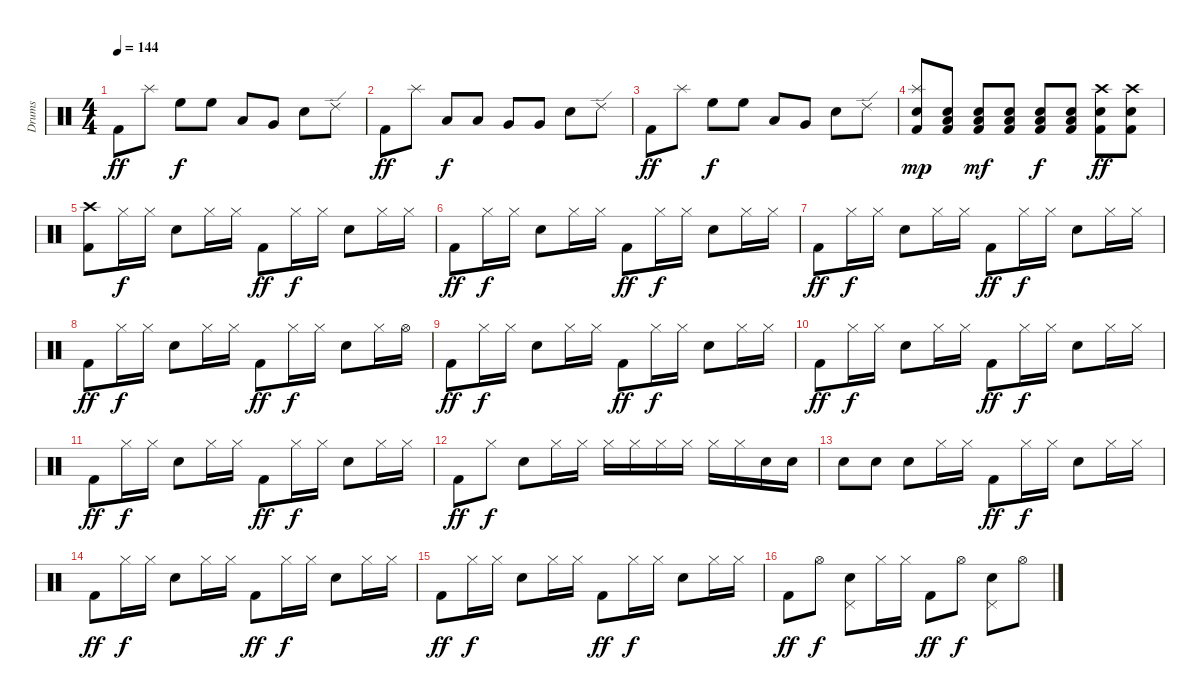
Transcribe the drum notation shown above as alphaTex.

\track ("Drums" "Drums") {instrument percussion}
\staff {score}
\articulation defaults
\ts (4 4)
\tempo 144
\clef neutral
\ks c "Kick (hit) 2".8{dy ff} "Splash (hit)".8 "High Floor Tom (hit)".8{dy f} "High Floor Tom (hit)".8 "Low Tom (hit)".8 "Very Low Tom (hit)".8 "Snare (hit) 2".8 "Ride (edge) 2".8
|
"Kick (hit) 2".8{dy ff} "Splash (hit)".8 "Low Tom (hit)".8{dy f} "Low Tom (hit)".8 "Very Low Tom (hit)".8 "Very Low Tom (hit)".8 "Snare (hit) 2".8 "Ride (edge) 2".8 |
"Kick (hit) 2".8{dy ff} "Splash (hit)".8 "High Floor Tom (hit)".8{dy f} "High Floor Tom (hit)".8 "Low Tom (hit)".8 "Very Low Tom (hit)".8 "Snare (hit) 2".8 "Ride (edge) 2".8 |
("Splash (hit)" "Snare (hit) 2" "Kick (hit) 2").8{dy mp} ("Snare (hit) 2" "Low Floor Tom (hit)" "Kick (hit) 2").8 ("Snare (hit) 2" "Low Floor Tom (hit)" "Kick (hit) 2").8{dy mf} ("Snare (hit) 2" "Low Floor Tom (hit)" "Kick (hit) 2").8 ("Snare (hit) 2" "Low Floor Tom (hit)" "Kick (hit) 2").8{dy f} ("Snare (hit) 2" "Low Floor Tom (hit)" "Kick (hit) 2").8 ("Crash high (hit)" "Snare (hit) 2" "Kick (hit) 2").8{dy ff} ("Crash high (hit)" "Snare (hit) 2" "Kick (hit) 2").8 |
("Crash high (hit)" "Kick (hit) 2").8 "Hi-Hat (closed)".16{dy f} "Hi-Hat (closed)".16 "Snare (hit) 2".8 "Hi-Hat (closed)".16 "Hi-Hat (closed)".16 "Kick (hit) 2".8{dy ff} "Hi-Hat (closed)".16{dy f} "Hi-Hat (closed)".16 "Snare (hit) 2".8 "Hi-Hat (closed)".16 "Hi-Hat (closed)".16 |
"Kick (hit) 2".8{dy ff} "Hi-Hat (closed)".16{dy f} "Hi-Hat (closed)".16 "Snare (hit) 2".8 "Hi-Hat (closed)".16 "Hi-Hat (closed)".16 "Kick (hit) 2".8{dy ff} "Hi-Hat (closed)".16{dy f} "Hi-Hat (closed)".16 "Snare (hit) 2".8 "Hi-Hat (closed)".16 "Hi-Hat (closed)".16 |
"Kick (hit) 2".8{dy ff} "Hi-Hat (closed)".16{dy f} "Hi-Hat (closed)".16 "Snare (hit) 2".8 "Hi-Hat (closed)".16 "Hi-Hat (closed)".16 "Kick (hit) 2".8{dy ff} "Hi-Hat (closed)".16{dy f} "Hi-Hat (closed)".16 "Snare (hit) 2".8 "Hi-Hat (closed)".16 "Hi-Hat (closed)".16 |
"Kick (hit) 2".8{dy ff} "Hi-Hat (closed)".16{dy f} "Hi-Hat (closed)".16 "Snare (hit) 2".8 "Hi-Hat (closed)".16 "Hi-Hat (closed)".16 "Kick (hit) 2".8{dy ff} "Hi-Hat (closed)".16{dy f} "Hi-Hat (closed)".16 "Snare (hit) 2".8 "Hi-Hat (closed)".16 "Hi-Hat (open)".16 |
"Kick (hit) 2".8{dy ff} "Hi-Hat (closed)".16{dy f} "Hi-Hat (closed)".16 "Snare (hit) 2".8 "Hi-Hat (closed)".16 "Hi-Hat (closed)".16 "Kick (hit) 2".8{dy ff} "Hi-Hat (closed)".16{dy f} "Hi-Hat (closed)".16 "Snare (hit) 2".8 "Hi-Hat (closed)".16 "Hi-Hat (closed)".16 |
"Kick (hit) 2".8{dy ff} "Hi-Hat (closed)".16{dy f} "Hi-Hat (closed)".16 "Snare (hit) 2".8 "Hi-Hat (closed)".16 "Hi-Hat (closed)".16 "Kick (hit) 2".8{dy ff} "Hi-Hat (closed)".16{dy f} "Hi-Hat (closed)".16 "Snare (hit) 2".8 "Hi-Hat (closed)".16 "Hi-Hat (closed)".16 |
"Kick (hit) 2".8{dy ff} "Hi-Hat (closed)".16{dy f} "Hi-Hat (closed)".16 "Snare (hit) 2".8 "Hi-Hat (closed)".16 "Hi-Hat (closed)".16 "Kick (hit) 2".8{dy ff} "Hi-Hat (closed)".16{dy f} "Hi-Hat (closed)".16 "Snare (hit) 2".8 "Hi-Hat (closed)".16 "Hi-Hat (closed)".16 |
"Kick (hit) 2".8{dy ff} "Hi-Hat (closed)".8{dy f} "Snare (hit) 2".8 "Hi-Hat (closed)".16 "Hi-Hat (closed)".16 "Hi-Hat (closed)".16 "Hi-Hat (closed)".16 "Hi-Hat (closed)".16 "Hi-Hat (closed)".16 "Hi-Hat (closed)".16 "Hi-Hat (closed)".16 "Snare (hit) 2".16 "Snare (hit) 2".16 |
"Snare (hit) 2".8 "Snare (hit) 2".8 "Snare (hit) 2".8 "Hi-Hat (closed)".16 "Hi-Hat (closed)".16 "Kick (hit) 2".8{dy ff} "Hi-Hat (closed)".16{dy f} "Hi-Hat (closed)".16 "Snare (hit) 2".8 "Hi-Hat (closed)".16 "Hi-Hat (closed)".16 |
"Kick (hit) 2".8{dy ff} "Hi-Hat (closed)".16{dy f} "Hi-Hat (closed)".16 "Snare (hit) 2".8 "Hi-Hat (closed)".16 "Hi-Hat (closed)".16 "Kick (hit) 2".8{dy ff} "Hi-Hat (closed)".16{dy f} "Hi-Hat (closed)".16 "Snare (hit) 2".8 "Hi-Hat (closed)".16 "Hi-Hat (closed)".16 |
"Kick (hit) 2".8{dy ff} "Hi-Hat (closed)".16{dy f} "Hi-Hat (closed)".16 "Snare (hit) 2".8 "Hi-Hat (closed)".16 "Hi-Hat (closed)".16 "Kick (hit) 2".8{dy ff} "Hi-Hat (closed)".16{dy f} "Hi-Hat (closed)".16 "Snare (hit) 2".8 "Hi-Hat (closed)".16 "Hi-Hat (closed)".16 |
"Kick (hit) 2".8{dy ff} "Hi-Hat (open)".8{dy f} ("Pedal Hi-Hat (hit)" "Snare (hit) 2").8 "Hi-Hat (closed)".16 "Hi-Hat (closed)".16 "Kick (hit) 2".8{dy ff} "Hi-Hat (open)".8{dy f} ("Pedal Hi-Hat (hit)" "Snare (hit) 2").8 "Hi-Hat (open)".8
